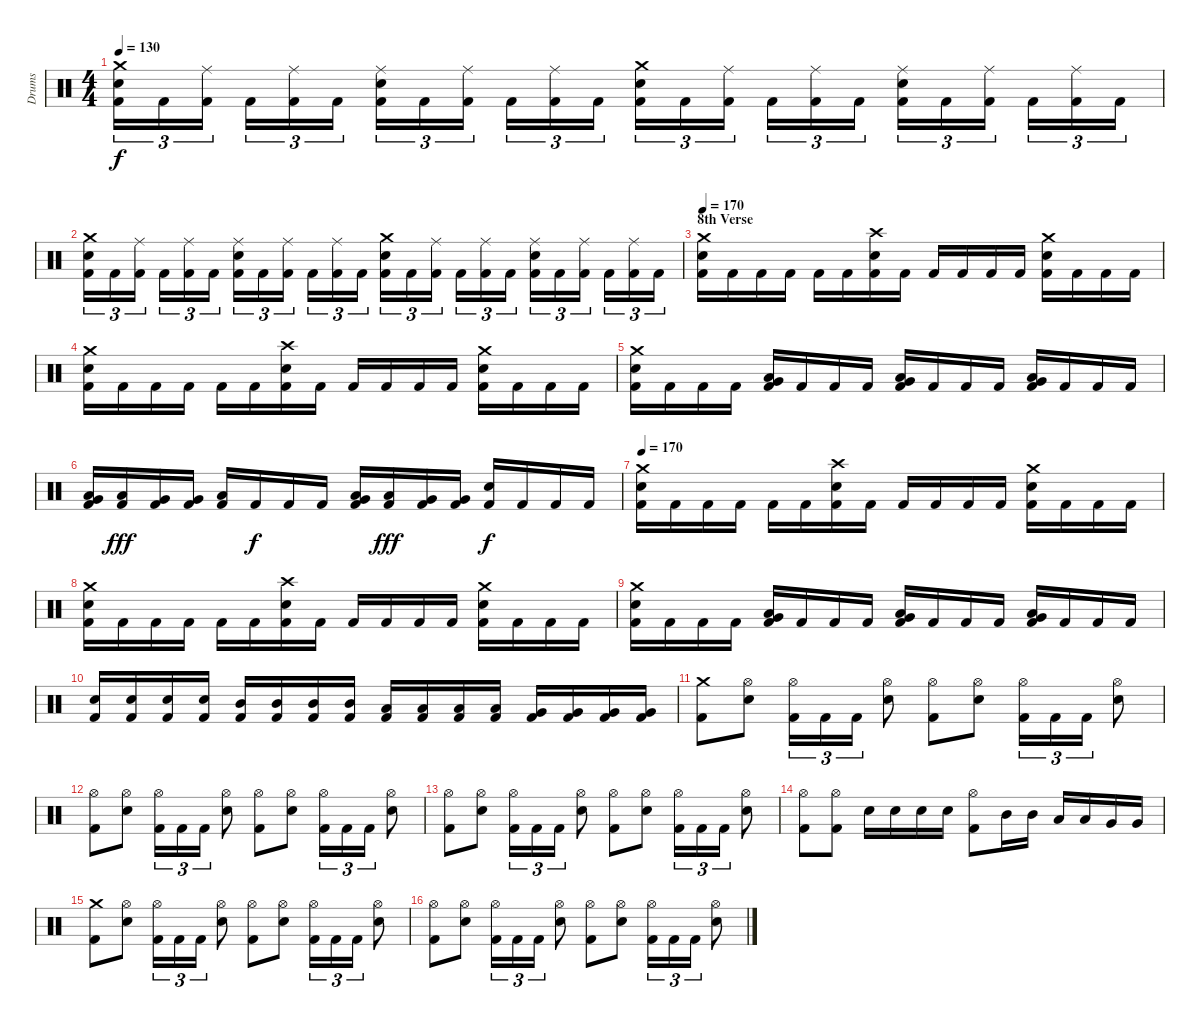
\track ("Drums" "Drums") {instrument percussion}
\staff {score}
\articulation defaults
\ts (4 4)
\tempo 130
\clef neutral
\ks c
("Kick (hit) 2" "Electric Snare (hit)" "Crash medium (hit)").16{tu (3 2) dy f} "Kick (hit) 2".16{tu (3 2)} ("Kick (hit) 2" "Ride (middle)").16{tu (3 2)} "Kick (hit) 2".16{tu (3 2)} ("Kick (hit) 2" "Ride (middle)").16{tu (3 2)} "Kick (hit) 2".16{tu (3 2)} ("Kick (hit) 2" "Electric Snare (hit)" "Ride (middle)").16{tu (3 2)} "Kick (hit) 2".16{tu (3 2)} ("Kick (hit) 2" "Ride (middle)").16{tu (3 2)} "Kick (hit) 2".16{tu (3 2)} ("Kick (hit) 2" "Ride (middle)").16{tu (3 2)} "Kick (hit) 2".16{tu (3 2)} ("Kick (hit) 2" "Electric Snare (hit)" "Crash medium (hit)").16{tu (3 2)} "Kick (hit) 2".16{tu (3 2)} ("Kick (hit) 2" "Ride (middle)").16{tu (3 2)} "Kick (hit) 2".16{tu (3 2)} ("Kick (hit) 2" "Ride (middle)").16{tu (3 2)} "Kick (hit) 2".16{tu (3 2)} ("Kick (hit) 2" "Electric Snare (hit)" "Ride (middle)").16{tu (3 2)} "Kick (hit) 2".16{tu (3 2)} ("Kick (hit) 2" "Ride (middle)").16{tu (3 2)} "Kick (hit) 2".16{tu (3 2)} ("Kick (hit) 2" "Ride (middle)").16{tu (3 2)} "Kick (hit) 2".16{tu (3 2)} |
("Kick (hit) 2" "Electric Snare (hit)" "Crash medium (hit)").16{tu (3 2)} "Kick (hit) 2".16{tu (3 2)} ("Kick (hit) 2" "Ride (middle)").16{tu (3 2)} "Kick (hit) 2".16{tu (3 2)} ("Kick (hit) 2" "Ride (middle)").16{tu (3 2)} "Kick (hit) 2".16{tu (3 2)} ("Kick (hit) 2" "Electric Snare (hit)" "Ride (middle)").16{tu (3 2)} "Kick (hit) 2".16{tu (3 2)} ("Kick (hit) 2" "Ride (middle)").16{tu (3 2)} "Kick (hit) 2".16{tu (3 2)} ("Kick (hit) 2" "Ride (middle)").16{tu (3 2)} "Kick (hit) 2".16{tu (3 2)} ("Kick (hit) 2" "Electric Snare (hit)" "Crash medium (hit)").16{tu (3 2)} "Kick (hit) 2".16{tu (3 2)} ("Kick (hit) 2" "Ride (middle)").16{tu (3 2)} "Kick (hit) 2".16{tu (3 2)} ("Kick (hit) 2" "Ride (middle)").16{tu (3 2)} "Kick (hit) 2".16{tu (3 2)} ("Kick (hit) 2" "Electric Snare (hit)" "Ride (middle)").16{tu (3 2)} "Kick (hit) 2".16{tu (3 2)} ("Kick (hit) 2" "Ride (middle)").16{tu (3 2)} "Kick (hit) 2".16{tu (3 2)} ("Kick (hit) 2" "Ride (middle)").16{tu (3 2)} "Kick (hit) 2".16{tu (3 2)} |
\section ("" "8th Verse")
\tempo 170
("Kick (hit) 2" "Electric Snare (hit)" "Crash medium (hit)").16 "Kick (hit) 2".16 "Kick (hit) 2".16 "Kick (hit) 2".16 "Kick (hit) 2".16 "Kick (hit) 2".16 ("Kick (hit) 2" "Electric Snare (hit)" "Crash high (hit)").16 "Kick (hit) 2".16 "Kick (hit) 2".16 "Kick (hit) 2".16 "Kick (hit) 2".16 "Kick (hit) 2".16 ("Kick (hit) 2" "Electric Snare (hit)" "Crash medium (hit)").16 "Kick (hit) 2".16 "Kick (hit) 2".16 "Kick (hit) 2".16 |
("Kick (hit) 2" "Electric Snare (hit)" "Crash medium (hit)").16 "Kick (hit) 2".16 "Kick (hit) 2".16 "Kick (hit) 2".16 "Kick (hit) 2".16 "Kick (hit) 2".16 ("Kick (hit) 2" "Electric Snare (hit)" "Crash high (hit)").16 "Kick (hit) 2".16 "Kick (hit) 2".16 "Kick (hit) 2".16 "Kick (hit) 2".16 "Kick (hit) 2".16 ("Kick (hit) 2" "Electric Snare (hit)" "Crash medium (hit)").16 "Kick (hit) 2".16 "Kick (hit) 2".16 "Kick (hit) 2".16 |
("Kick (hit) 2" "Electric Snare (hit)" "Crash medium (hit)").16 "Kick (hit) 2".16 "Kick (hit) 2".16 "Kick (hit) 2".16 ("Kick (hit) 2" "Low Tom (hit)" "Very Low Tom (hit)").16 "Kick (hit) 2".16 "Kick (hit) 2".16 "Kick (hit) 2".16 ("Kick (hit) 2" "Low Tom (hit)" "Very Low Tom (hit)").16 "Kick (hit) 2".16 "Kick (hit) 2".16 "Kick (hit) 2".16 ("Kick (hit) 2" "Low Tom (hit)" "Very Low Tom (hit)").16 "Kick (hit) 2".16 "Kick (hit) 2".16 "Kick (hit) 2".16 |
("Kick (hit) 2" "Low Tom (hit)" "Very Low Tom (hit)").16 ("Kick (hit) 2" "Low Tom (hit)").16{dy fff} ("Kick (hit) 2" "Very Low Tom (hit)").16 ("Kick (hit) 2" "Very Low Tom (hit)").16 ("Kick (hit) 2" "Low Floor Tom (hit)").16 "Kick (hit) 2".16{dy f} "Kick (hit) 2".16 "Kick (hit) 2".16 ("Kick (hit) 2" "Low Tom (hit)" "Very Low Tom (hit)").16 ("Kick (hit) 2" "Low Tom (hit)").16{dy fff} ("Kick (hit) 2" "Very Low Tom (hit)").16 ("Kick (hit) 2" "Very Low Tom (hit)").16 ("Kick (hit) 2" "Electric Snare (hit)").16{dy f} "Kick (hit) 2".16 "Kick (hit) 2".16 "Kick (hit) 2".16 |
\tempo 170
("Kick (hit) 2" "Electric Snare (hit)" "Crash medium (hit)").16 "Kick (hit) 2".16 "Kick (hit) 2".16 "Kick (hit) 2".16 "Kick (hit) 2".16 "Kick (hit) 2".16 ("Kick (hit) 2" "Electric Snare (hit)" "Crash high (hit)").16 "Kick (hit) 2".16 "Kick (hit) 2".16 "Kick (hit) 2".16 "Kick (hit) 2".16 "Kick (hit) 2".16 ("Kick (hit) 2" "Electric Snare (hit)" "Crash medium (hit)").16 "Kick (hit) 2".16 "Kick (hit) 2".16 "Kick (hit) 2".16 |
("Kick (hit) 2" "Electric Snare (hit)" "Crash medium (hit)").16 "Kick (hit) 2".16 "Kick (hit) 2".16 "Kick (hit) 2".16 "Kick (hit) 2".16 "Kick (hit) 2".16 ("Kick (hit) 2" "Electric Snare (hit)" "Crash high (hit)").16 "Kick (hit) 2".16 "Kick (hit) 2".16 "Kick (hit) 2".16 "Kick (hit) 2".16 "Kick (hit) 2".16 ("Kick (hit) 2" "Electric Snare (hit)" "Crash medium (hit)").16 "Kick (hit) 2".16 "Kick (hit) 2".16 "Kick (hit) 2".16 |
("Kick (hit) 2" "Electric Snare (hit)" "Crash medium (hit)").16 "Kick (hit) 2".16 "Kick (hit) 2".16 "Kick (hit) 2".16 ("Kick (hit) 2" "Low Tom (hit)" "Very Low Tom (hit)").16 "Kick (hit) 2".16 "Kick (hit) 2".16 "Kick (hit) 2".16 ("Kick (hit) 2" "Low Tom (hit)" "Very Low Tom (hit)").16 "Kick (hit) 2".16 "Kick (hit) 2".16 "Kick (hit) 2".16 ("Kick (hit) 2" "Low Tom (hit)" "Very Low Tom (hit)").16 "Kick (hit) 2".16 "Kick (hit) 2".16 "Kick (hit) 2".16 |
("Kick (hit) 2" "Electric Snare (hit)").16 ("Kick (hit) 2" "Electric Snare (hit)").16 ("Kick (hit) 2" "Electric Snare (hit)").16 ("Kick (hit) 2" "Electric Snare (hit)").16 ("Kick (hit) 2" "Mid Tom (hit)").16 ("Kick (hit) 2" "Mid Tom (hit)").16 ("Kick (hit) 2" "Mid Tom (hit)").16 ("Kick (hit) 2" "Mid Tom (hit)").16 ("Kick (hit) 2" "Low Tom (hit)").16 ("Kick (hit) 2" "Low Tom (hit)").16 ("Kick (hit) 2" "Low Tom (hit)").16 ("Kick (hit) 2" "Low Tom (hit)").16 ("Kick (hit) 2" "Very Low Tom (hit)").16 ("Kick (hit) 2" "Very Low Tom (hit)").16 ("Kick (hit) 2" "Very Low Tom (hit)").16 ("Kick (hit) 2" "Very Low Tom (hit)").16 |
("Kick (hit) 2" "Crash medium (hit)").8 ("Electric Snare (hit)" "Hi-Hat (open)").8 ("Kick (hit) 2" "Hi-Hat (open)").16{tu (3 2)} "Kick (hit) 2".16{tu (3 2)} "Kick (hit) 2".16{tu (3 2)} ("Electric Snare (hit)" "Hi-Hat (open)").8 ("Kick (hit) 2" "Hi-Hat (open)").8 ("Electric Snare (hit)" "Hi-Hat (open)").8 ("Kick (hit) 2" "Hi-Hat (open)").16{tu (3 2)} "Kick (hit) 2".16{tu (3 2)} "Kick (hit) 2".16{tu (3 2)} ("Electric Snare (hit)" "Hi-Hat (open)").8 |
("Kick (hit) 2" "Hi-Hat (open)").8 ("Electric Snare (hit)" "Hi-Hat (open)").8 ("Kick (hit) 2" "Hi-Hat (open)").16{tu (3 2)} "Kick (hit) 2".16{tu (3 2)} "Kick (hit) 2".16{tu (3 2)} ("Electric Snare (hit)" "Hi-Hat (open)").8 ("Kick (hit) 2" "Hi-Hat (open)").8 ("Electric Snare (hit)" "Hi-Hat (open)").8 ("Kick (hit) 2" "Hi-Hat (open)").16{tu (3 2)} "Kick (hit) 2".16{tu (3 2)} "Kick (hit) 2".16{tu (3 2)} ("Electric Snare (hit)" "Hi-Hat (open)").8 |
("Kick (hit) 2" "Hi-Hat (open)").8 ("Electric Snare (hit)" "Hi-Hat (open)").8 ("Kick (hit) 2" "Hi-Hat (open)").16{tu (3 2)} "Kick (hit) 2".16{tu (3 2)} "Kick (hit) 2".16{tu (3 2)} ("Electric Snare (hit)" "Hi-Hat (open)").8 ("Kick (hit) 2" "Hi-Hat (open)").8 ("Electric Snare (hit)" "Hi-Hat (open)").8 ("Kick (hit) 2" "Hi-Hat (open)").16{tu (3 2)} "Kick (hit) 2".16{tu (3 2)} "Kick (hit) 2".16{tu (3 2)} ("Electric Snare (hit)" "Hi-Hat (open)").8 |
("Kick (hit) 2" "Hi-Hat (open)").8 ("Kick (hit) 2" "Hi-Hat (open)").8 "Electric Snare (hit)".16 "Electric Snare (hit)".16 "Electric Snare (hit)".16 "Electric Snare (hit)".16 ("Kick (hit) 2" "Hi-Hat (open)").8 "Mid Tom (hit)".16 "Mid Tom (hit)".16 "Low Tom (hit)".16 "Low Tom (hit)".16 "Very Low Tom (hit)".16 "Very Low Tom (hit)".16 |
("Kick (hit) 2" "Crash medium (hit)").8 ("Electric Snare (hit)" "Hi-Hat (open)").8 ("Kick (hit) 2" "Hi-Hat (open)").16{tu (3 2)} "Kick (hit) 2".16{tu (3 2)} "Kick (hit) 2".16{tu (3 2)} ("Electric Snare (hit)" "Hi-Hat (open)").8 ("Kick (hit) 2" "Hi-Hat (open)").8 ("Electric Snare (hit)" "Hi-Hat (open)").8 ("Kick (hit) 2" "Hi-Hat (open)").16{tu (3 2)} "Kick (hit) 2".16{tu (3 2)} "Kick (hit) 2".16{tu (3 2)} ("Electric Snare (hit)" "Hi-Hat (open)").8 |
("Kick (hit) 2" "Hi-Hat (open)").8 ("Electric Snare (hit)" "Hi-Hat (open)").8 ("Kick (hit) 2" "Hi-Hat (open)").16{tu (3 2)} "Kick (hit) 2".16{tu (3 2)} "Kick (hit) 2".16{tu (3 2)} ("Electric Snare (hit)" "Hi-Hat (open)").8 ("Kick (hit) 2" "Hi-Hat (open)").8 ("Electric Snare (hit)" "Hi-Hat (open)").8 ("Kick (hit) 2" "Hi-Hat (open)").16{tu (3 2)} "Kick (hit) 2".16{tu (3 2)} "Kick (hit) 2".16{tu (3 2)} ("Electric Snare (hit)" "Hi-Hat (open)").8
